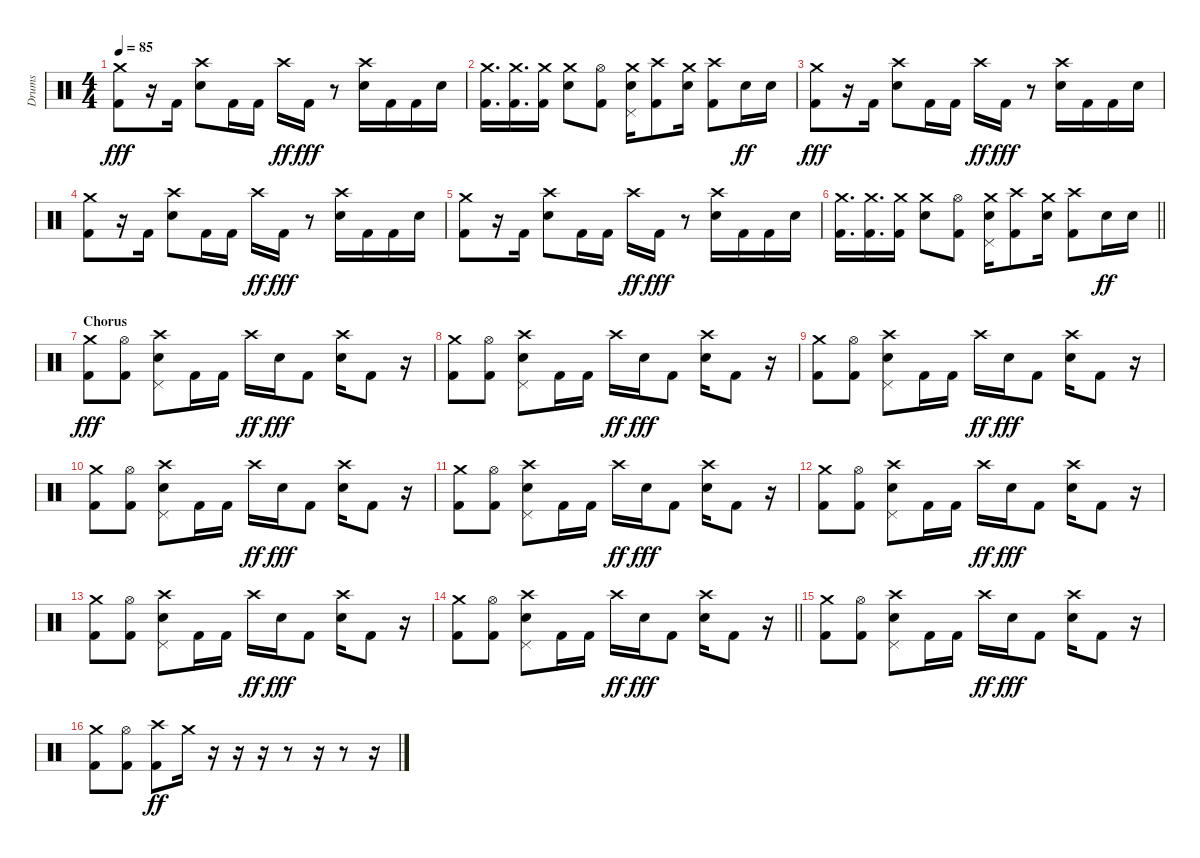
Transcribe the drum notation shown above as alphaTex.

\track ("Drums" "Drums") {instrument percussion}
\staff {score}
\articulation defaults
\ts (4 4)
\tempo 85
\clef neutral
\ks c
("Crash medium (hit)" "Kick (hit) 2").8{dy fff} r.16 "Kick (hit) 2".16 ("Crash high (hit)" "Electric Snare (hit)").8 "Kick (hit) 2".16 "Kick (hit) 2".16 "Crash high (hit)".16{dy ff} "Kick (hit) 2".16{dy fff} r.8 ("Crash high (hit)" "Electric Snare (hit)").16 "Kick (hit) 2".16 "Kick (hit) 2".16 "Electric Snare (hit)".16 |
("Crash medium (hit)" "Kick (hit) 2").16{d} ("Crash medium (hit)" "Kick (hit) 2").16{d} ("Crash medium (hit)" "Kick (hit) 2").16 ("Crash medium (hit)" "Electric Snare (hit)").8 ("Hi-Hat (open)" "Kick (hit) 2").8 ("Crash medium (hit)" "Pedal Hi-Hat (hit)" "Electric Snare (hit)").16 ("Crash high (hit)" "Kick (hit) 2").8 ("Crash medium (hit)" "Electric Snare (hit)").16 ("Crash high (hit)" "Kick (hit) 2").8 "Electric Snare (hit)".16{dy ff} "Electric Snare (hit)".16 |
("Crash medium (hit)" "Kick (hit) 2").8{dy fff} r.16 "Kick (hit) 2".16 ("Crash high (hit)" "Electric Snare (hit)").8 "Kick (hit) 2".16 "Kick (hit) 2".16 "Crash high (hit)".16{dy ff} "Kick (hit) 2".16{dy fff} r.8 ("Crash high (hit)" "Electric Snare (hit)").16 "Kick (hit) 2".16 "Kick (hit) 2".16 "Electric Snare (hit)".16 |
("Crash medium (hit)" "Kick (hit) 2").8 r.16 "Kick (hit) 2".16 ("Crash high (hit)" "Electric Snare (hit)").8 "Kick (hit) 2".16 "Kick (hit) 2".16 "Crash high (hit)".16{dy ff} "Kick (hit) 2".16{dy fff} r.8 ("Crash high (hit)" "Electric Snare (hit)").16 "Kick (hit) 2".16 "Kick (hit) 2".16 "Electric Snare (hit)".16 |
("Crash medium (hit)" "Kick (hit) 2").8 r.16 "Kick (hit) 2".16 ("Crash high (hit)" "Electric Snare (hit)").8 "Kick (hit) 2".16 "Kick (hit) 2".16 "Crash high (hit)".16{dy ff} "Kick (hit) 2".16{dy fff} r.8 ("Crash high (hit)" "Electric Snare (hit)").16 "Kick (hit) 2".16 "Kick (hit) 2".16 "Electric Snare (hit)".16 |
\barLineRight lightlight
("Crash medium (hit)" "Kick (hit) 2").16{d} ("Crash medium (hit)" "Kick (hit) 2").16{d} ("Crash medium (hit)" "Kick (hit) 2").16 ("Crash medium (hit)" "Electric Snare (hit)").8 ("Hi-Hat (open)" "Kick (hit) 2").8 ("Crash medium (hit)" "Pedal Hi-Hat (hit)" "Electric Snare (hit)").16 ("Crash high (hit)" "Kick (hit) 2").8 ("Crash medium (hit)" "Electric Snare (hit)").16 ("Crash high (hit)" "Kick (hit) 2").8 "Electric Snare (hit)".16{dy ff} "Electric Snare (hit)".16 |
\section ("" "Chorus")
("Crash medium (hit)" "Kick (hit) 2").8{dy fff} ("Hi-Hat (open)" "Kick (hit) 2").8 ("Crash high (hit)" "Pedal Hi-Hat (hit)" "Electric Snare (hit)").8 "Kick (hit) 2".16 "Kick (hit) 2".16 "Crash high (hit)".16{dy ff} "Electric Snare (hit)".16{dy fff} "Kick (hit) 2".8 ("Crash high (hit)" "Electric Snare (hit)").16 "Kick (hit) 2".8 r.16 |
("Crash medium (hit)" "Kick (hit) 2").8 ("Hi-Hat (open)" "Kick (hit) 2").8 ("Crash high (hit)" "Pedal Hi-Hat (hit)" "Electric Snare (hit)").8 "Kick (hit) 2".16 "Kick (hit) 2".16 "Crash high (hit)".16{dy ff} "Electric Snare (hit)".16{dy fff} "Kick (hit) 2".8 ("Crash high (hit)" "Electric Snare (hit)").16 "Kick (hit) 2".8 r.16 |
("Crash medium (hit)" "Kick (hit) 2").8 ("Hi-Hat (open)" "Kick (hit) 2").8 ("Crash high (hit)" "Pedal Hi-Hat (hit)" "Electric Snare (hit)").8 "Kick (hit) 2".16 "Kick (hit) 2".16 "Crash high (hit)".16{dy ff} "Electric Snare (hit)".16{dy fff} "Kick (hit) 2".8 ("Crash high (hit)" "Electric Snare (hit)").16 "Kick (hit) 2".8 r.16 |
("Crash medium (hit)" "Kick (hit) 2").8 ("Hi-Hat (open)" "Kick (hit) 2").8 ("Crash high (hit)" "Pedal Hi-Hat (hit)" "Electric Snare (hit)").8 "Kick (hit) 2".16 "Kick (hit) 2".16 "Crash high (hit)".16{dy ff} "Electric Snare (hit)".16{dy fff} "Kick (hit) 2".8 ("Crash high (hit)" "Electric Snare (hit)").16 "Kick (hit) 2".8 r.16 |
("Crash medium (hit)" "Kick (hit) 2").8 ("Hi-Hat (open)" "Kick (hit) 2").8 ("Crash high (hit)" "Pedal Hi-Hat (hit)" "Electric Snare (hit)").8 "Kick (hit) 2".16 "Kick (hit) 2".16 "Crash high (hit)".16{dy ff} "Electric Snare (hit)".16{dy fff} "Kick (hit) 2".8 ("Crash high (hit)" "Electric Snare (hit)").16 "Kick (hit) 2".8 r.16 |
("Crash medium (hit)" "Kick (hit) 2").8 ("Hi-Hat (open)" "Kick (hit) 2").8 ("Crash high (hit)" "Pedal Hi-Hat (hit)" "Electric Snare (hit)").8 "Kick (hit) 2".16 "Kick (hit) 2".16 "Crash high (hit)".16{dy ff} "Electric Snare (hit)".16{dy fff} "Kick (hit) 2".8 ("Crash high (hit)" "Electric Snare (hit)").16 "Kick (hit) 2".8 r.16 |
("Crash medium (hit)" "Kick (hit) 2").8 ("Hi-Hat (open)" "Kick (hit) 2").8 ("Crash high (hit)" "Pedal Hi-Hat (hit)" "Electric Snare (hit)").8 "Kick (hit) 2".16 "Kick (hit) 2".16 "Crash high (hit)".16{dy ff} "Electric Snare (hit)".16{dy fff} "Kick (hit) 2".8 ("Crash high (hit)" "Electric Snare (hit)").16 "Kick (hit) 2".8 r.16 |
\barLineRight lightlight
("Crash medium (hit)" "Kick (hit) 2").8 ("Hi-Hat (open)" "Kick (hit) 2").8 ("Crash high (hit)" "Pedal Hi-Hat (hit)" "Electric Snare (hit)").8 "Kick (hit) 2".16 "Kick (hit) 2".16 "Crash high (hit)".16{dy ff} "Electric Snare (hit)".16{dy fff} "Kick (hit) 2".8 ("Crash high (hit)" "Electric Snare (hit)").16 "Kick (hit) 2".8 r.16 |
("Crash medium (hit)" "Kick (hit) 2").8 ("Hi-Hat (open)" "Kick (hit) 2").8 ("Crash high (hit)" "Pedal Hi-Hat (hit)" "Electric Snare (hit)").8 "Kick (hit) 2".16 "Kick (hit) 2".16 "Crash high (hit)".16{dy ff} "Electric Snare (hit)".16{dy fff} "Kick (hit) 2".8 ("Crash high (hit)" "Electric Snare (hit)").16 "Kick (hit) 2".8 r.16 |
("Crash medium (hit)" "Kick (hit) 2").8 ("Hi-Hat (open)" "Kick (hit) 2").8 ("Crash high (hit)" "Kick (hit) 2").8{dy ff} "Crash medium (hit)".16 r.16 r.16 r.16 r.8 r.16 r.8 r.16
